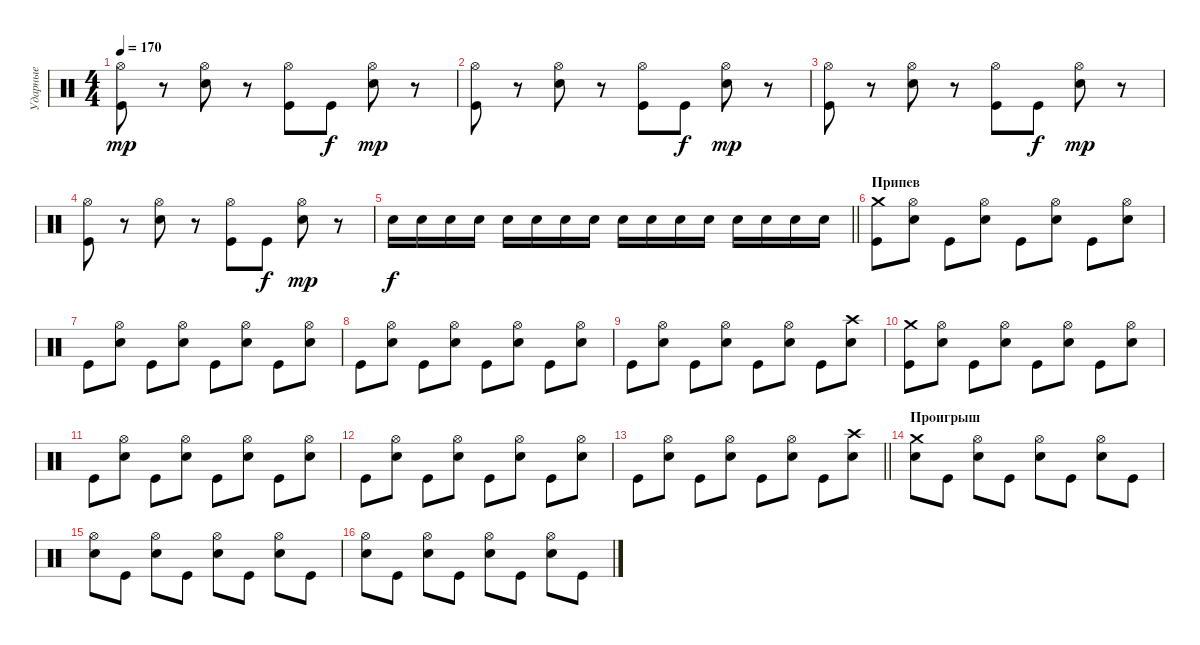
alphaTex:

\track ("Ударные" "Ударные") {instrument percussion}
\staff {score}
\articulation defaults
\ts (4 4)
\tempo 170
\clef neutral
\ks c
("Hi-Hat (open)" "Kick (hit)").8{dy mp} r.8 ("Hi-Hat (open)" "Electric Snare (hit)").8 r.8 ("Hi-Hat (open)" "Kick (hit)").8 "Kick (hit)".8{dy f} ("Hi-Hat (open)" "Electric Snare (hit)").8{dy mp} r.8 |
("Hi-Hat (open)" "Kick (hit)").8 r.8 ("Hi-Hat (open)" "Electric Snare (hit)").8 r.8 ("Hi-Hat (open)" "Kick (hit)").8 "Kick (hit)".8{dy f} ("Hi-Hat (open)" "Electric Snare (hit)").8{dy mp} r.8 |
("Hi-Hat (open)" "Kick (hit)").8 r.8 ("Hi-Hat (open)" "Electric Snare (hit)").8 r.8 ("Hi-Hat (open)" "Kick (hit)").8 "Kick (hit)".8{dy f} ("Hi-Hat (open)" "Electric Snare (hit)").8{dy mp} r.8 |
("Hi-Hat (open)" "Kick (hit)").8 r.8 ("Hi-Hat (open)" "Electric Snare (hit)").8 r.8 ("Hi-Hat (open)" "Kick (hit)").8 "Kick (hit)".8{dy f} ("Hi-Hat (open)" "Electric Snare (hit)").8{dy mp} r.8 |
\barLineRight lightlight "Electric Snare (hit)".16{dy f} "Electric Snare (hit)".16 "Electric Snare (hit)".16 "Electric Snare (hit)".16 "Electric Snare (hit)".16 "Electric Snare (hit)".16 "Electric Snare (hit)".16 "Electric Snare (hit)".16 "Electric Snare (hit)".16 "Electric Snare (hit)".16 "Electric Snare (hit)".16 "Electric Snare (hit)".16 "Electric Snare (hit)".16 "Electric Snare (hit)".16 "Electric Snare (hit)".16 "Electric Snare (hit)".16
|
\section ("" "Припев")
("Crash medium (hit)" "Kick (hit)").8 ("Hi-Hat (open)" "Electric Snare (hit)").8 "Kick (hit)".8 ("Hi-Hat (open)" "Electric Snare (hit)").8 "Kick (hit)".8 ("Hi-Hat (open)" "Electric Snare (hit)").8 "Kick (hit)".8 ("Hi-Hat (open)" "Electric Snare (hit)").8 |
"Kick (hit)".8 ("Hi-Hat (open)" "Electric Snare (hit)").8 "Kick (hit)".8 ("Hi-Hat (open)" "Electric Snare (hit)").8 "Kick (hit)".8 ("Hi-Hat (open)" "Electric Snare (hit)").8 "Kick (hit)".8 ("Hi-Hat (open)" "Electric Snare (hit)").8 |
"Kick (hit)".8 ("Hi-Hat (open)" "Electric Snare (hit)").8 "Kick (hit)".8 ("Hi-Hat (open)" "Electric Snare (hit)").8 "Kick (hit)".8 ("Hi-Hat (open)" "Electric Snare (hit)").8 "Kick (hit)".8 ("Hi-Hat (open)" "Electric Snare (hit)").8 |
"Kick (hit)".8 ("Hi-Hat (open)" "Electric Snare (hit)").8 "Kick (hit)".8 ("Hi-Hat (open)" "Electric Snare (hit)").8 "Kick (hit)".8 ("Hi-Hat (open)" "Electric Snare (hit)").8 "Kick (hit)".8 ("Crash high (hit)" "Electric Snare (hit)").8 |
("Crash medium (hit)" "Kick (hit)").8 ("Hi-Hat (open)" "Electric Snare (hit)").8 "Kick (hit)".8 ("Hi-Hat (open)" "Electric Snare (hit)").8 "Kick (hit)".8 ("Hi-Hat (open)" "Electric Snare (hit)").8 "Kick (hit)".8 ("Hi-Hat (open)" "Electric Snare (hit)").8 |
"Kick (hit)".8 ("Hi-Hat (open)" "Electric Snare (hit)").8 "Kick (hit)".8 ("Hi-Hat (open)" "Electric Snare (hit)").8 "Kick (hit)".8 ("Hi-Hat (open)" "Electric Snare (hit)").8 "Kick (hit)".8 ("Hi-Hat (open)" "Electric Snare (hit)").8 |
"Kick (hit)".8 ("Hi-Hat (open)" "Electric Snare (hit)").8 "Kick (hit)".8 ("Hi-Hat (open)" "Electric Snare (hit)").8 "Kick (hit)".8 ("Hi-Hat (open)" "Electric Snare (hit)").8 "Kick (hit)".8 ("Hi-Hat (open)" "Electric Snare (hit)").8 |
\barLineRight lightlight "Kick (hit)".8
("Hi-Hat (open)" "Electric Snare (hit)").8 "Kick (hit)".8 ("Hi-Hat (open)" "Electric Snare (hit)").8 "Kick (hit)".8 ("Hi-Hat (open)" "Electric Snare (hit)").8 "Kick (hit)".8 ("Crash high (hit)" "Electric Snare (hit)").8 |
\section ("" "Проигрыш")
("Crash medium (hit)" "Electric Snare (hit)").8 "Kick (hit)".8 ("Hi-Hat (open)" "Electric Snare (hit)").8 "Kick (hit)".8 ("Hi-Hat (open)" "Electric Snare (hit)").8 "Kick (hit)".8 ("Hi-Hat (open)" "Electric Snare (hit)").8 "Kick (hit)".8 |
("Hi-Hat (open)" "Electric Snare (hit)").8 "Kick (hit)".8 ("Hi-Hat (open)" "Electric Snare (hit)").8 "Kick (hit)".8 ("Hi-Hat (open)" "Electric Snare (hit)").8 "Kick (hit)".8 ("Hi-Hat (open)" "Electric Snare (hit)").8 "Kick (hit)".8 |
("Hi-Hat (open)" "Electric Snare (hit)").8 "Kick (hit)".8 ("Hi-Hat (open)" "Electric Snare (hit)").8 "Kick (hit)".8 ("Hi-Hat (open)" "Electric Snare (hit)").8 "Kick (hit)".8 ("Hi-Hat (open)" "Electric Snare (hit)").8 "Kick (hit)".8
